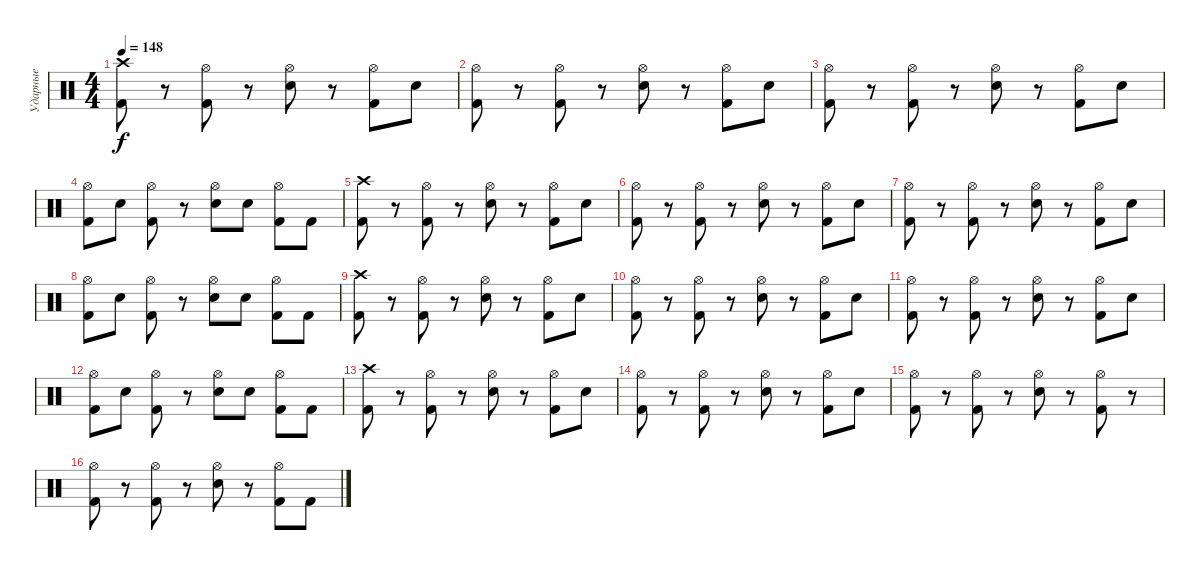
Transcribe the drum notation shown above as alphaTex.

\track ("Ударные" "Ударные") {instrument percussion}
\staff {score}
\articulation defaults
\ts (4 4)
\tempo 148
\clef neutral
\ks c
("Kick (hit) 2" "Crash high (hit)").8{dy f} r.8 ("Kick (hit) 2" "Hi-Hat (open)").8 r.8 ("Electric Snare (hit)" "Hi-Hat (open)").8 r.8 ("Kick (hit) 2" "Hi-Hat (open)").8 "Electric Snare (hit)".8 |
("Kick (hit) 2" "Hi-Hat (open)").8 r.8 ("Kick (hit) 2" "Hi-Hat (open)").8 r.8 ("Electric Snare (hit)" "Hi-Hat (open)").8 r.8 ("Kick (hit) 2" "Hi-Hat (open)").8 "Electric Snare (hit)".8 |
("Kick (hit) 2" "Hi-Hat (open)").8 r.8 ("Kick (hit) 2" "Hi-Hat (open)").8 r.8 ("Electric Snare (hit)" "Hi-Hat (open)").8 r.8 ("Kick (hit) 2" "Hi-Hat (open)").8 "Electric Snare (hit)".8 |
("Kick (hit) 2" "Hi-Hat (open)").8 "Electric Snare (hit)".8 ("Kick (hit) 2" "Hi-Hat (open)").8 r.8 ("Electric Snare (hit)" "Hi-Hat (open)").8 "Electric Snare (hit)".8 ("Kick (hit) 2" "Hi-Hat (open)").8 "Kick (hit) 2".8 |
("Kick (hit) 2" "Crash high (hit)").8 r.8 ("Kick (hit) 2" "Hi-Hat (open)").8 r.8 ("Electric Snare (hit)" "Hi-Hat (open)").8 r.8 ("Kick (hit) 2" "Hi-Hat (open)").8 "Electric Snare (hit)".8 |
("Kick (hit) 2" "Hi-Hat (open)").8 r.8 ("Kick (hit) 2" "Hi-Hat (open)").8 r.8 ("Electric Snare (hit)" "Hi-Hat (open)").8 r.8 ("Kick (hit) 2" "Hi-Hat (open)").8 "Electric Snare (hit)".8 |
("Kick (hit) 2" "Hi-Hat (open)").8 r.8 ("Kick (hit) 2" "Hi-Hat (open)").8 r.8 ("Electric Snare (hit)" "Hi-Hat (open)").8 r.8 ("Kick (hit) 2" "Hi-Hat (open)").8 "Electric Snare (hit)".8 |
("Kick (hit) 2" "Hi-Hat (open)").8 "Electric Snare (hit)".8 ("Kick (hit) 2" "Hi-Hat (open)").8 r.8 ("Electric Snare (hit)" "Hi-Hat (open)").8 "Electric Snare (hit)".8 ("Kick (hit) 2" "Hi-Hat (open)").8 "Kick (hit) 2".8 |
("Kick (hit) 2" "Crash high (hit)").8 r.8 ("Kick (hit) 2" "Hi-Hat (open)").8 r.8 ("Electric Snare (hit)" "Hi-Hat (open)").8 r.8 ("Kick (hit) 2" "Hi-Hat (open)").8 "Electric Snare (hit)".8 |
("Kick (hit) 2" "Hi-Hat (open)").8 r.8 ("Kick (hit) 2" "Hi-Hat (open)").8 r.8 ("Electric Snare (hit)" "Hi-Hat (open)").8 r.8 ("Kick (hit) 2" "Hi-Hat (open)").8 "Electric Snare (hit)".8 |
("Kick (hit) 2" "Hi-Hat (open)").8 r.8 ("Kick (hit) 2" "Hi-Hat (open)").8 r.8 ("Electric Snare (hit)" "Hi-Hat (open)").8 r.8 ("Kick (hit) 2" "Hi-Hat (open)").8 "Electric Snare (hit)".8 |
("Kick (hit) 2" "Hi-Hat (open)").8 "Electric Snare (hit)".8 ("Kick (hit) 2" "Hi-Hat (open)").8 r.8 ("Electric Snare (hit)" "Hi-Hat (open)").8 "Electric Snare (hit)".8 ("Kick (hit) 2" "Hi-Hat (open)").8 "Kick (hit) 2".8 |
("Kick (hit) 2" "Crash high (hit)").8 r.8 ("Kick (hit) 2" "Hi-Hat (open)").8 r.8 ("Electric Snare (hit)" "Hi-Hat (open)").8 r.8 ("Kick (hit) 2" "Hi-Hat (open)").8 "Electric Snare (hit)".8 |
("Kick (hit) 2" "Hi-Hat (open)").8 r.8 ("Kick (hit) 2" "Hi-Hat (open)").8 r.8 ("Electric Snare (hit)" "Hi-Hat (open)").8 r.8 ("Kick (hit) 2" "Hi-Hat (open)").8 "Electric Snare (hit)".8 |
("Kick (hit) 2" "Hi-Hat (open)").8 r.8 ("Kick (hit) 2" "Hi-Hat (open)").8 r.8 ("Electric Snare (hit)" "Hi-Hat (open)").8 r.8 ("Kick (hit) 2" "Hi-Hat (open)").8 r.8 |
("Kick (hit) 2" "Hi-Hat (open)").8 r.8 ("Kick (hit) 2" "Hi-Hat (open)").8 r.8 ("Electric Snare (hit)" "Hi-Hat (open)").8 r.8 ("Kick (hit) 2" "Hi-Hat (open)").8 "Kick (hit) 2".8
